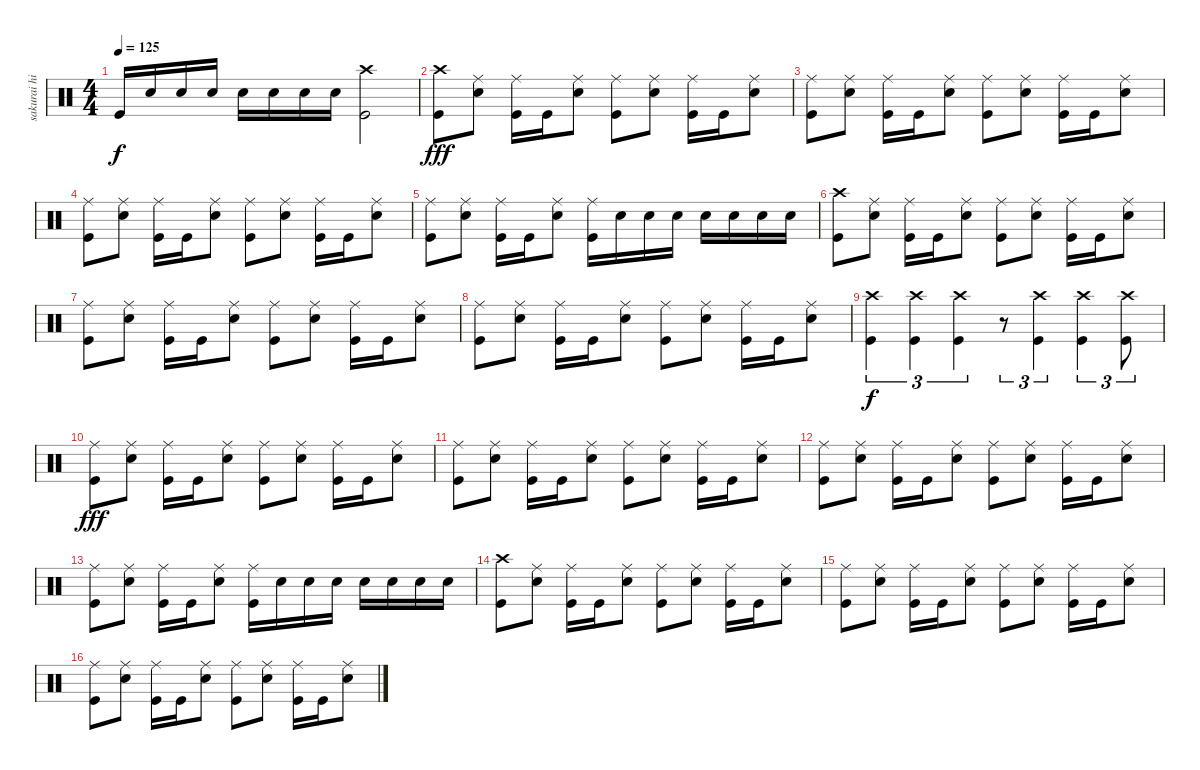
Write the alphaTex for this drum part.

\track ("sakurai hiroshi" "sakurai hi") {instrument percussion}
\staff {score}
\articulation defaults
\ts (4 4)
\tempo 125
\clef neutral
\ks c "Kick (hit)".16{dy f} "Snare (hit) 2".16 "Snare (hit) 2".16 "Snare (hit) 2".16 "Snare (hit) 2".16 "Snare (hit) 2".16 "Snare (hit) 2".16 "Snare (hit) 2".16
("Kick (hit)" "Crash high (hit)").2 |
("Kick (hit)" "Crash high (hit)").8{dy fff} ("Ride (middle)" "Snare (hit) 2").8 ("Ride (middle)" "Kick (hit)").16 "Kick (hit)".16 ("Ride (middle)" "Snare (hit) 2").8 ("Ride (middle)" "Kick (hit)").8 ("Ride (middle)" "Snare (hit) 2").8 ("Ride (middle)" "Kick (hit)").16 "Kick (hit)".16 ("Ride (middle)" "Snare (hit) 2").8 |
("Kick (hit)" "Ride (middle)").8 ("Ride (middle)" "Snare (hit) 2").8 ("Ride (middle)" "Kick (hit)").16 "Kick (hit)".16 ("Ride (middle)" "Snare (hit) 2").8 ("Ride (middle)" "Kick (hit)").8 ("Ride (middle)" "Snare (hit) 2").8 ("Ride (middle)" "Kick (hit)").16 "Kick (hit)".16 ("Ride (middle)" "Snare (hit) 2").8 |
("Kick (hit)" "Ride (middle)").8 ("Ride (middle)" "Snare (hit) 2").8 ("Ride (middle)" "Kick (hit)").16 "Kick (hit)".16 ("Ride (middle)" "Snare (hit) 2").8 ("Ride (middle)" "Kick (hit)").8 ("Ride (middle)" "Snare (hit) 2").8 ("Ride (middle)" "Kick (hit)").16 "Kick (hit)".16 ("Ride (middle)" "Snare (hit) 2").8 |
("Kick (hit)" "Ride (middle)").8 ("Ride (middle)" "Snare (hit) 2").8 ("Ride (middle)" "Kick (hit)").16 "Kick (hit)".16 ("Ride (middle)" "Snare (hit) 2").8 ("Ride (middle)" "Kick (hit)").16 "Snare (hit) 2".16 "Snare (hit) 2".16 "Snare (hit) 2".16 "Snare (hit) 2".16 "Snare (hit) 2".16 "Snare (hit) 2".16 "Snare (hit) 2".16 |
("Kick (hit)" "Crash high (hit)").8 ("Ride (middle)" "Snare (hit) 2").8 ("Ride (middle)" "Kick (hit)").16 "Kick (hit)".16 ("Ride (middle)" "Snare (hit) 2").8 ("Ride (middle)" "Kick (hit)").8 ("Ride (middle)" "Snare (hit) 2").8 ("Ride (middle)" "Kick (hit)").16 "Kick (hit)".16 ("Ride (middle)" "Snare (hit) 2").8 |
("Kick (hit)" "Ride (middle)").8 ("Ride (middle)" "Snare (hit) 2").8 ("Ride (middle)" "Kick (hit)").16 "Kick (hit)".16 ("Ride (middle)" "Snare (hit) 2").8 ("Ride (middle)" "Kick (hit)").8 ("Ride (middle)" "Snare (hit) 2").8 ("Ride (middle)" "Kick (hit)").16 "Kick (hit)".16 ("Ride (middle)" "Snare (hit) 2").8 |
("Kick (hit)" "Ride (middle)").8 ("Ride (middle)" "Snare (hit) 2").8 ("Ride (middle)" "Kick (hit)").16 "Kick (hit)".16 ("Ride (middle)" "Snare (hit) 2").8 ("Ride (middle)" "Kick (hit)").8 ("Ride (middle)" "Snare (hit) 2").8 ("Ride (middle)" "Kick (hit)").16 "Kick (hit)".16 ("Ride (middle)" "Snare (hit) 2").8 |
("Kick (hit)" "Crash high (hit)").4{tu (3 2) dy f} ("Crash high (hit)" "Kick (hit)").4{tu (3 2)} ("Kick (hit)" "Crash high (hit)").4{tu (3 2)} r.8{tu (3 2)} ("Crash high (hit)" "Kick (hit)").4{tu (3 2)} ("Kick (hit)" "Crash high (hit)").4{tu (3 2)} ("Crash high (hit)" "Kick (hit)").8{tu (3 2)} |
("Kick (hit)" "Ride (middle)").8{dy fff} ("Ride (middle)" "Snare (hit) 2").8 ("Ride (middle)" "Kick (hit)").16 "Kick (hit)".16 ("Ride (middle)" "Snare (hit) 2").8 ("Ride (middle)" "Kick (hit)").8 ("Ride (middle)" "Snare (hit) 2").8 ("Ride (middle)" "Kick (hit)").16 "Kick (hit)".16 ("Ride (middle)" "Snare (hit) 2").8 |
("Kick (hit)" "Ride (middle)").8 ("Ride (middle)" "Snare (hit) 2").8 ("Ride (middle)" "Kick (hit)").16 "Kick (hit)".16 ("Ride (middle)" "Snare (hit) 2").8 ("Ride (middle)" "Kick (hit)").8 ("Ride (middle)" "Snare (hit) 2").8 ("Ride (middle)" "Kick (hit)").16 "Kick (hit)".16 ("Ride (middle)" "Snare (hit) 2").8 |
("Kick (hit)" "Ride (middle)").8 ("Ride (middle)" "Snare (hit) 2").8 ("Ride (middle)" "Kick (hit)").16 "Kick (hit)".16 ("Ride (middle)" "Snare (hit) 2").8 ("Ride (middle)" "Kick (hit)").8 ("Ride (middle)" "Snare (hit) 2").8 ("Ride (middle)" "Kick (hit)").16 "Kick (hit)".16 ("Ride (middle)" "Snare (hit) 2").8 |
("Kick (hit)" "Ride (middle)").8 ("Ride (middle)" "Snare (hit) 2").8 ("Ride (middle)" "Kick (hit)").16 "Kick (hit)".16 ("Ride (middle)" "Snare (hit) 2").8 ("Ride (middle)" "Kick (hit)").16 "Snare (hit) 2".16 "Snare (hit) 2".16 "Snare (hit) 2".16 "Snare (hit) 2".16 "Snare (hit) 2".16 "Snare (hit) 2".16 "Snare (hit) 2".16 |
("Kick (hit)" "Crash high (hit)").8 ("Ride (middle)" "Snare (hit) 2").8 ("Ride (middle)" "Kick (hit)").16 "Kick (hit)".16 ("Ride (middle)" "Snare (hit) 2").8 ("Ride (middle)" "Kick (hit)").8 ("Ride (middle)" "Snare (hit) 2").8 ("Ride (middle)" "Kick (hit)").16 "Kick (hit)".16 ("Ride (middle)" "Snare (hit) 2").8 |
("Kick (hit)" "Ride (middle)").8 ("Ride (middle)" "Snare (hit) 2").8 ("Ride (middle)" "Kick (hit)").16 "Kick (hit)".16 ("Ride (middle)" "Snare (hit) 2").8 ("Ride (middle)" "Kick (hit)").8 ("Ride (middle)" "Snare (hit) 2").8 ("Ride (middle)" "Kick (hit)").16 "Kick (hit)".16 ("Ride (middle)" "Snare (hit) 2").8 |
("Kick (hit)" "Ride (middle)").8 ("Ride (middle)" "Snare (hit) 2").8 ("Ride (middle)" "Kick (hit)").16 "Kick (hit)".16 ("Ride (middle)" "Snare (hit) 2").8 ("Ride (middle)" "Kick (hit)").8 ("Ride (middle)" "Snare (hit) 2").8 ("Ride (middle)" "Kick (hit)").16 "Kick (hit)".16 ("Ride (middle)" "Snare (hit) 2").8
